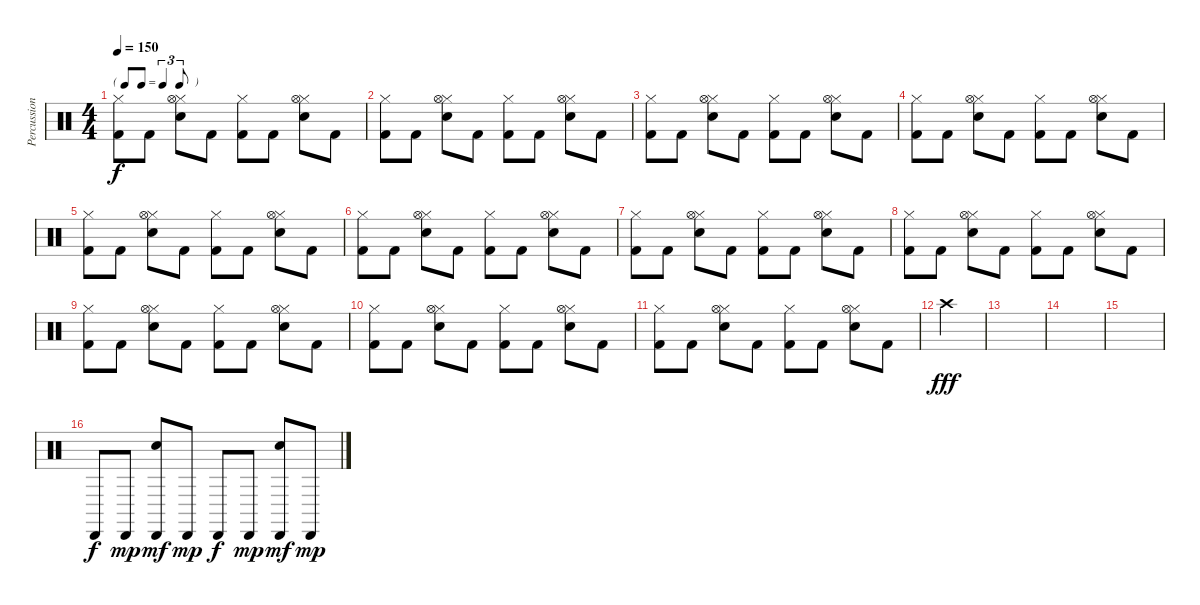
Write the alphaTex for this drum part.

\track ("Percussion" "Percussion") {instrument percussion}
\staff {score}
\articulation defaults
\ts (4 4)
\tf triplet8th
\tempo 150
\clef neutral
\ks c
("Hi-Hat (closed)" "Kick (hit) 2").8{dy f} "Kick (hit) 2".8 ("Hi-Hat (closed)" "Electric Snare (hit)" "Hi-Hat (open)").8 "Kick (hit) 2".8 ("Hi-Hat (closed)" "Kick (hit) 2").8 "Kick (hit) 2".8 ("Hi-Hat (closed)" "Electric Snare (hit)" "Hi-Hat (open)").8 "Kick (hit) 2".8 |
("Hi-Hat (closed)" "Kick (hit) 2").8 "Kick (hit) 2".8 ("Hi-Hat (closed)" "Electric Snare (hit)" "Hi-Hat (open)").8 "Kick (hit) 2".8 ("Hi-Hat (closed)" "Kick (hit) 2").8 "Kick (hit) 2".8 ("Hi-Hat (closed)" "Electric Snare (hit)" "Hi-Hat (open)").8 "Kick (hit) 2".8 |
("Hi-Hat (closed)" "Kick (hit) 2").8 "Kick (hit) 2".8 ("Hi-Hat (closed)" "Electric Snare (hit)" "Hi-Hat (open)").8 "Kick (hit) 2".8 ("Hi-Hat (closed)" "Kick (hit) 2").8 "Kick (hit) 2".8 ("Hi-Hat (closed)" "Electric Snare (hit)" "Hi-Hat (open)").8 "Kick (hit) 2".8 |
("Hi-Hat (closed)" "Kick (hit) 2").8 "Kick (hit) 2".8 ("Hi-Hat (closed)" "Electric Snare (hit)" "Hi-Hat (open)").8 "Kick (hit) 2".8 ("Hi-Hat (closed)" "Kick (hit) 2").8 "Kick (hit) 2".8 ("Hi-Hat (closed)" "Electric Snare (hit)" "Hi-Hat (open)").8 "Kick (hit) 2".8 |
("Hi-Hat (closed)" "Kick (hit) 2").8 "Kick (hit) 2".8 ("Hi-Hat (closed)" "Electric Snare (hit)" "Hi-Hat (open)").8 "Kick (hit) 2".8 ("Hi-Hat (closed)" "Kick (hit) 2").8 "Kick (hit) 2".8 ("Hi-Hat (closed)" "Electric Snare (hit)" "Hi-Hat (open)").8 "Kick (hit) 2".8 |
("Hi-Hat (closed)" "Kick (hit) 2").8 "Kick (hit) 2".8 ("Hi-Hat (closed)" "Electric Snare (hit)" "Hi-Hat (open)").8 "Kick (hit) 2".8 ("Hi-Hat (closed)" "Kick (hit) 2").8 "Kick (hit) 2".8 ("Hi-Hat (closed)" "Electric Snare (hit)" "Hi-Hat (open)").8 "Kick (hit) 2".8 |
("Hi-Hat (closed)" "Kick (hit) 2").8 "Kick (hit) 2".8 ("Hi-Hat (closed)" "Electric Snare (hit)" "Hi-Hat (open)").8 "Kick (hit) 2".8 ("Hi-Hat (closed)" "Kick (hit) 2").8 "Kick (hit) 2".8 ("Hi-Hat (closed)" "Electric Snare (hit)" "Hi-Hat (open)").8 "Kick (hit) 2".8 |
("Hi-Hat (closed)" "Kick (hit) 2").8 "Kick (hit) 2".8 ("Hi-Hat (closed)" "Electric Snare (hit)" "Hi-Hat (open)").8 "Kick (hit) 2".8 ("Hi-Hat (closed)" "Kick (hit) 2").8 "Kick (hit) 2".8 ("Hi-Hat (closed)" "Electric Snare (hit)" "Hi-Hat (open)").8 "Kick (hit) 2".8 |
("Hi-Hat (closed)" "Kick (hit) 2").8 "Kick (hit) 2".8 ("Hi-Hat (closed)" "Electric Snare (hit)" "Hi-Hat (open)").8 "Kick (hit) 2".8 ("Hi-Hat (closed)" "Kick (hit) 2").8 "Kick (hit) 2".8 ("Hi-Hat (closed)" "Electric Snare (hit)" "Hi-Hat (open)").8 "Kick (hit) 2".8 |
("Hi-Hat (closed)" "Kick (hit) 2").8 "Kick (hit) 2".8 ("Hi-Hat (closed)" "Electric Snare (hit)" "Hi-Hat (open)").8 "Kick (hit) 2".8 ("Hi-Hat (closed)" "Kick (hit) 2").8 "Kick (hit) 2".8 ("Hi-Hat (closed)" "Electric Snare (hit)" "Hi-Hat (open)").8 "Kick (hit) 2".8 |
("Hi-Hat (closed)" "Kick (hit) 2").8 "Kick (hit) 2".8 ("Hi-Hat (closed)" "Electric Snare (hit)" "Hi-Hat (open)").8 "Kick (hit) 2".8 ("Hi-Hat (closed)" "Kick (hit) 2").8 "Kick (hit) 2".8 ("Hi-Hat (closed)" "Electric Snare (hit)" "Hi-Hat (open)").8 "Kick (hit) 2".8 |
"Crash high (hit)".4{dy fff} |
|
|
|
"Cabasa (hit)".8{dy f} "Cabasa (hit)".8{dy mp} ("Cabasa (hit)" "Hand Clap (hit)").8{dy mf} "Cabasa (hit)".8{dy mp} "Cabasa (hit)".8{dy f} "Cabasa (hit)".8{dy mp} ("Cabasa (hit)" "Hand Clap (hit)").8{dy mf} "Cabasa (hit)".8{dy mp}
